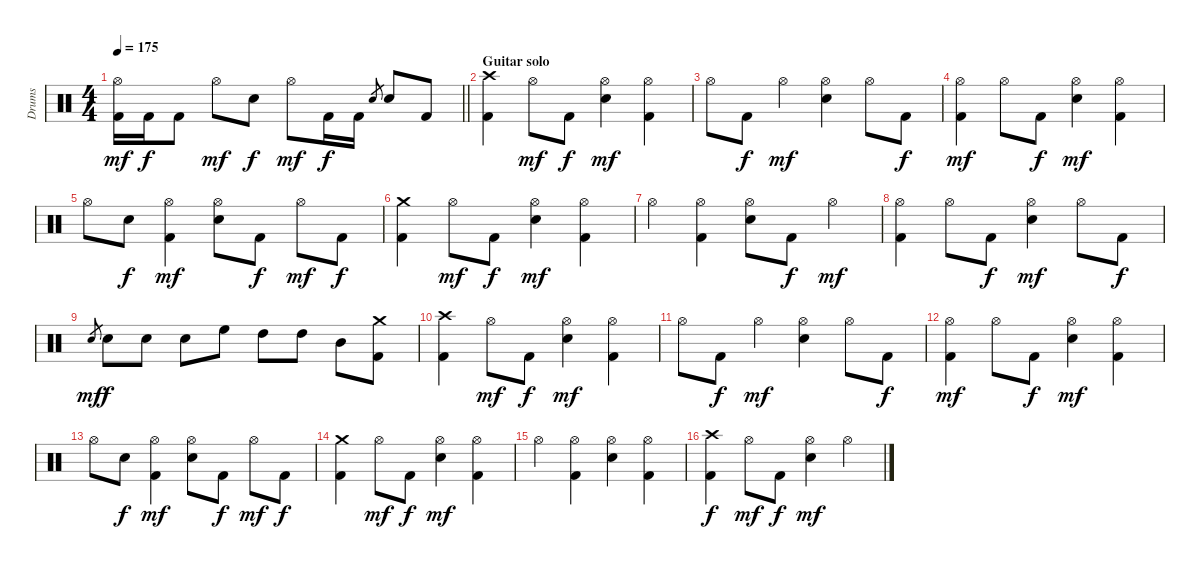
\track ("Drums" "Drums") {instrument percussion}
\staff {score}
\articulation defaults
\ts (4 4)
\tempo 175
\clef neutral
\barLineRight lightlight
\ks c
("Hi-Hat (open)" "Kick (hit) 2").16{dy mf} "Kick (hit) 2".16{dy f} "Kick (hit) 2".8 "Hi-Hat (open)".8{dy mf} "Electric Snare (hit)".8{dy f} "Hi-Hat (open)".8{dy mf} "Kick (hit) 2".16{dy f} "Kick (hit) 2".16 "Electric Snare (hit)".8{gr} "Electric Snare (hit)".8 "Kick (hit) 2".8 |
\section ("" "Guitar solo")
("Crash high (hit)" "Kick (hit) 2").4 "Hi-Hat (open)".8{dy mf} "Kick (hit) 2".8{dy f} ("Hi-Hat (open)" "Electric Snare (hit)").4{dy mf} ("Hi-Hat (open)" "Kick (hit) 2").4 |
"Hi-Hat (open)".8 "Kick (hit) 2".8{dy f} "Hi-Hat (open)".4{dy mf} ("Hi-Hat (open)" "Electric Snare (hit)").4 "Hi-Hat (open)".8 "Kick (hit) 2".8{dy f} |
("Hi-Hat (open)" "Kick (hit) 2").4{dy mf} "Hi-Hat (open)".8 "Kick (hit) 2".8{dy f} ("Hi-Hat (open)" "Electric Snare (hit)").4{dy mf} ("Hi-Hat (open)" "Kick (hit) 2").4 |
"Hi-Hat (open)".8 "Electric Snare (hit)".8{dy f} ("Hi-Hat (open)" "Kick (hit) 2").4{dy mf} ("Hi-Hat (open)" "Electric Snare (hit)").8 "Kick (hit) 2".8{dy f} "Hi-Hat (open)".8{dy mf} "Kick (hit) 2".8{dy f} |
("Crash medium (hit)" "Kick (hit) 2").4 "Hi-Hat (open)".8{dy mf} "Kick (hit) 2".8{dy f} ("Hi-Hat (open)" "Electric Snare (hit)").4{dy mf} ("Hi-Hat (open)" "Kick (hit) 2").4 |
"Hi-Hat (open)".4 ("Hi-Hat (open)" "Kick (hit) 2").4 ("Hi-Hat (open)" "Electric Snare (hit)").8 "Kick (hit) 2".8{dy f} "Hi-Hat (open)".4{dy mf} |
("Hi-Hat (open)" "Kick (hit) 2").4 "Hi-Hat (open)".8 "Kick (hit) 2".8{dy f} ("Hi-Hat (open)" "Electric Snare (hit)").4{dy mf} "Hi-Hat (open)".8 "Kick (hit) 2".8{dy f} |
"Electric Snare (hit)".8{gr dy mf} "Electric Snare (hit)".8{dy f} "Electric Snare (hit)".8 "Electric Snare (hit)".8 "High Floor Tom (hit)".8 "High Tom (hit)".8 "High Tom (hit)".8 "Mid Tom (hit)".8 ("Crash medium (hit)" "Kick (hit) 2").8 |
("Crash high (hit)" "Kick (hit) 2").4 "Hi-Hat (open)".8{dy mf} "Kick (hit) 2".8{dy f} ("Hi-Hat (open)" "Electric Snare (hit)").4{dy mf} ("Hi-Hat (open)" "Kick (hit) 2").4 |
"Hi-Hat (open)".8 "Kick (hit) 2".8{dy f} "Hi-Hat (open)".4{dy mf} ("Hi-Hat (open)" "Electric Snare (hit)").4 "Hi-Hat (open)".8 "Kick (hit) 2".8{dy f} |
("Hi-Hat (open)" "Kick (hit) 2").4{dy mf} "Hi-Hat (open)".8 "Kick (hit) 2".8{dy f} ("Hi-Hat (open)" "Electric Snare (hit)").4{dy mf} ("Hi-Hat (open)" "Kick (hit) 2").4 |
"Hi-Hat (open)".8 "Electric Snare (hit)".8{dy f} ("Hi-Hat (open)" "Kick (hit) 2").4{dy mf} ("Hi-Hat (open)" "Electric Snare (hit)").8 "Kick (hit) 2".8{dy f} "Hi-Hat (open)".8{dy mf} "Kick (hit) 2".8{dy f} |
("Crash medium (hit)" "Kick (hit) 2").4 "Hi-Hat (open)".8{dy mf} "Kick (hit) 2".8{dy f} ("Hi-Hat (open)" "Electric Snare (hit)").4{dy mf} ("Hi-Hat (open)" "Kick (hit) 2").4 |
"Hi-Hat (open)".4 ("Hi-Hat (open)" "Kick (hit) 2").4 ("Hi-Hat (open)" "Electric Snare (hit)").4 ("Hi-Hat (open)" "Kick (hit) 2").4 |
("Crash high (hit)" "Kick (hit) 2").4{dy f} "Hi-Hat (open)".8{dy mf} "Kick (hit) 2".8{dy f} ("Hi-Hat (open)" "Electric Snare (hit)").4{dy mf} "Hi-Hat (open)".4
